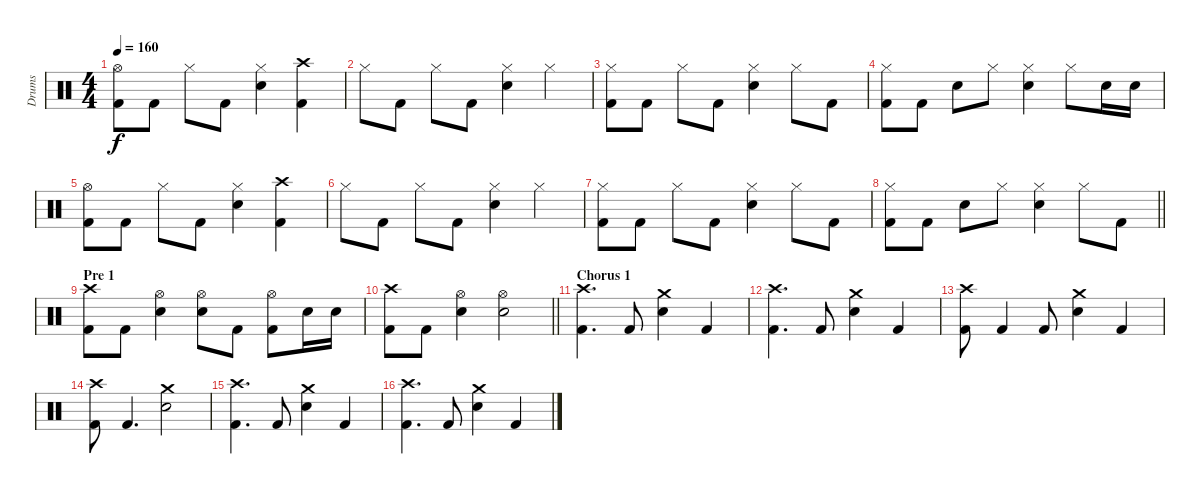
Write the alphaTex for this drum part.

\track ("Drums" "Drums") {instrument percussion}
\staff {score}
\articulation defaults
\ts (4 4)
\tempo 160
\clef neutral
\ks c
("Kick (hit) 2" "Hi-Hat (open)").8{dy f} "Kick (hit) 2".8 "Hi-Hat (closed)".8 "Kick (hit) 2".8 ("Electric Snare (hit)" "Hi-Hat (closed)").4 ("Kick (hit) 2" "Crash high (hit)").4 |
"Hi-Hat (closed)".8 "Kick (hit) 2".8 "Hi-Hat (closed)".8 "Kick (hit) 2".8 ("Electric Snare (hit)" "Hi-Hat (closed)").4 "Hi-Hat (closed)".4 |
("Kick (hit) 2" "Hi-Hat (closed)").8 "Kick (hit) 2".8 "Hi-Hat (closed)".8 "Kick (hit) 2".8 ("Electric Snare (hit)" "Hi-Hat (closed)").4 "Hi-Hat (closed)".8 "Kick (hit) 2".8 |
("Kick (hit) 2" "Hi-Hat (closed)").8 "Kick (hit) 2".8 "Electric Snare (hit)".8 "Hi-Hat (closed)".8 ("Electric Snare (hit)" "Hi-Hat (closed)").4 "Hi-Hat (closed)".8 "Electric Snare (hit)".16 "Electric Snare (hit)".16 |
("Kick (hit) 2" "Hi-Hat (open)").8 "Kick (hit) 2".8 "Hi-Hat (closed)".8 "Kick (hit) 2".8 ("Electric Snare (hit)" "Hi-Hat (closed)").4 ("Kick (hit) 2" "Crash high (hit)").4 |
"Hi-Hat (closed)".8 "Kick (hit) 2".8 "Hi-Hat (closed)".8 "Kick (hit) 2".8 ("Electric Snare (hit)" "Hi-Hat (closed)").4 "Hi-Hat (closed)".4 |
("Kick (hit) 2" "Hi-Hat (closed)").8 "Kick (hit) 2".8 "Hi-Hat (closed)".8 "Kick (hit) 2".8 ("Electric Snare (hit)" "Hi-Hat (closed)").4 "Hi-Hat (closed)".8 "Kick (hit) 2".8 |
\barLineRight lightlight
("Kick (hit) 2" "Hi-Hat (closed)").8 "Kick (hit) 2".8 "Electric Snare (hit)".8 "Hi-Hat (closed)".8 ("Electric Snare (hit)" "Hi-Hat (closed)").4 "Hi-Hat (closed)".8 "Kick (hit) 2".8 |
\section ("" "Pre 1")
("Kick (hit) 2" "Crash high (hit)").8 "Kick (hit) 2".8 ("Electric Snare (hit)" "Hi-Hat (open)").4 ("Electric Snare (hit)" "Hi-Hat (open)").8 "Kick (hit) 2".8 ("Kick (hit) 2" "Hi-Hat (open)").8 "Electric Snare (hit)".16 "Electric Snare (hit)".16 |
\barLineRight lightlight
("Kick (hit) 2" "Crash high (hit)").8 "Kick (hit) 2".8 ("Electric Snare (hit)" "Hi-Hat (open)").4 ("Electric Snare (hit)" "Hi-Hat (open)").2 |
\section ("" "Chorus 1")
("Kick (hit) 2" "Crash high (hit)").4{d} "Kick (hit) 2".8 ("Electric Snare (hit)" "Crash medium (hit)").4 "Kick (hit) 2".4 |
("Kick (hit) 2" "Crash high (hit)").4{d} "Kick (hit) 2".8 ("Electric Snare (hit)" "Crash medium (hit)").4 "Kick (hit) 2".4 |
("Kick (hit) 2" "Crash high (hit)").8 "Kick (hit) 2".4 "Kick (hit) 2".8 ("Electric Snare (hit)" "Crash medium (hit)").4 "Kick (hit) 2".4 |
("Kick (hit) 2" "Crash high (hit)").8 "Kick (hit) 2".4{d} ("Electric Snare (hit)" "Crash medium (hit)").2 |
("Kick (hit) 2" "Crash high (hit)").4{d} "Kick (hit) 2".8 ("Electric Snare (hit)" "Crash medium (hit)").4 "Kick (hit) 2".4 |
("Kick (hit) 2" "Crash high (hit)").4{d} "Kick (hit) 2".8 ("Electric Snare (hit)" "Crash medium (hit)").4 "Kick (hit) 2".4
